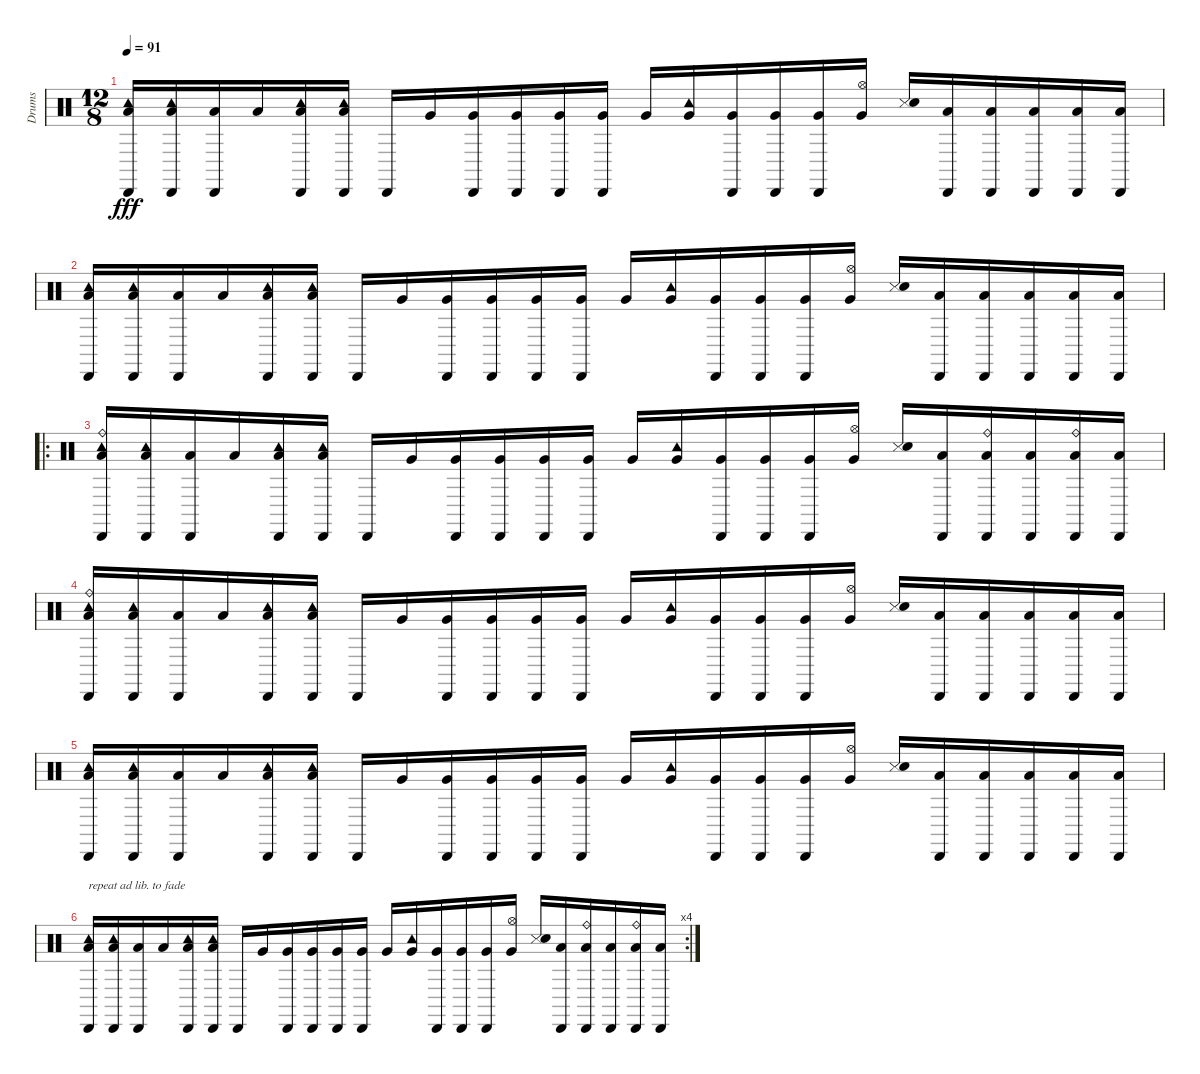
\track ("Drums" "Drums") {instrument percussion}
\staff {score}
\articulation defaults
\ts (12 8)
\tempo 91
\clef neutral
\ks c
("Cabasa (hit)" "Tambourine (hit)" "Low Tom (hit)").16{dy fff} ("Cabasa (hit)" "Tambourine (hit)" "Low Tom (hit)").16 ("Cabasa (hit)" "Low Tom (hit)").16 "Low Tom (hit)".16 ("Cabasa (hit)" "Tambourine (hit)" "Low Tom (hit)").16 ("Cabasa (hit)" "Tambourine (hit)" "Low Tom (hit)").16 "Cabasa (hit)".16 "Very Low Tom (hit)".16 ("Cabasa (hit)" "Very Low Tom (hit)").16 ("Cabasa (hit)" "Very Low Tom (hit)").16 ("Cabasa (hit)" "Very Low Tom (hit)").16 ("Cabasa (hit)" "Very Low Tom (hit)").16 "Very Low Tom (hit)".16 ("Tambourine (hit)" "Very Low Tom (hit)").16 ("Cabasa (hit)" "Very Low Tom (hit)").16 ("Cabasa (hit)" "Very Low Tom (hit)").16 ("Cabasa (hit)" "Very Low Tom (hit)").16 ("Hi-Hat (open)" "Very Low Tom (hit)").16 ("Snare (side stick) 3" "Electric Snare (hit)").16 ("Cabasa (hit)" "Low Tom (hit)").16 ("Cabasa (hit)" "Low Tom (hit)").16 ("Cabasa (hit)" "Low Tom (hit)").16 ("Cabasa (hit)" "Low Tom (hit)").16 ("Cabasa (hit)" "Low Tom (hit)").16 |
("Cabasa (hit)" "Tambourine (hit)" "Low Tom (hit)").16 ("Cabasa (hit)" "Tambourine (hit)" "Low Tom (hit)").16 ("Cabasa (hit)" "Low Tom (hit)").16 "Low Tom (hit)".16 ("Cabasa (hit)" "Tambourine (hit)" "Low Tom (hit)").16 ("Cabasa (hit)" "Tambourine (hit)" "Low Tom (hit)").16 "Cabasa (hit)".16 "Very Low Tom (hit)".16 ("Cabasa (hit)" "Very Low Tom (hit)").16 ("Cabasa (hit)" "Very Low Tom (hit)").16 ("Cabasa (hit)" "Very Low Tom (hit)").16 ("Cabasa (hit)" "Very Low Tom (hit)").16 "Very Low Tom (hit)".16 ("Tambourine (hit)" "Very Low Tom (hit)").16 ("Cabasa (hit)" "Very Low Tom (hit)").16 ("Cabasa (hit)" "Very Low Tom (hit)").16 ("Cabasa (hit)" "Very Low Tom (hit)").16 ("Hi-Hat (open)" "Very Low Tom (hit)").16 ("Snare (side stick) 3" "Electric Snare (hit)").16 ("Cabasa (hit)" "Low Tom (hit)").16 ("Cabasa (hit)" "Low Tom (hit)").16 ("Cabasa (hit)" "Low Tom (hit)").16 ("Cabasa (hit)" "Low Tom (hit)").16 ("Cabasa (hit)" "Low Tom (hit)").16 |
\ro
("Cabasa (hit)" "Ride (bell)" "Tambourine (hit)" "Low Tom (hit)").16 ("Cabasa (hit)" "Tambourine (hit)" "Low Tom (hit)").16 ("Cabasa (hit)" "Low Tom (hit)").16 "Low Tom (hit)".16 ("Cabasa (hit)" "Tambourine (hit)" "Low Tom (hit)").16 ("Cabasa (hit)" "Tambourine (hit)" "Low Tom (hit)").16 "Cabasa (hit)".16 "Very Low Tom (hit)".16 ("Cabasa (hit)" "Very Low Tom (hit)").16 ("Cabasa (hit)" "Very Low Tom (hit)").16 ("Cabasa (hit)" "Very Low Tom (hit)").16 ("Cabasa (hit)" "Very Low Tom (hit)").16 "Very Low Tom (hit)".16 ("Tambourine (hit)" "Very Low Tom (hit)").16 ("Cabasa (hit)" "Very Low Tom (hit)").16 ("Cabasa (hit)" "Very Low Tom (hit)").16 ("Cabasa (hit)" "Very Low Tom (hit)").16 ("Hi-Hat (open)" "Very Low Tom (hit)").16 ("Snare (side stick) 3" "Electric Snare (hit)").16 ("Cabasa (hit)" "Low Tom (hit)").16 ("Cabasa (hit)" "Ride (bell)" "Low Tom (hit)").16 ("Cabasa (hit)" "Low Tom (hit)").16 ("Cabasa (hit)" "Ride (bell)" "Low Tom (hit)").16 ("Cabasa (hit)" "Low Tom (hit)").16 |
("Cabasa (hit)" "Ride (bell)" "Tambourine (hit)" "Low Tom (hit)").16 ("Cabasa (hit)" "Tambourine (hit)" "Low Tom (hit)").16 ("Cabasa (hit)" "Low Tom (hit)").16 "Low Tom (hit)".16 ("Cabasa (hit)" "Tambourine (hit)" "Low Tom (hit)").16 ("Cabasa (hit)" "Tambourine (hit)" "Low Tom (hit)").16 "Cabasa (hit)".16 "Very Low Tom (hit)".16 ("Cabasa (hit)" "Very Low Tom (hit)").16 ("Cabasa (hit)" "Very Low Tom (hit)").16 ("Cabasa (hit)" "Very Low Tom (hit)").16 ("Cabasa (hit)" "Very Low Tom (hit)").16 "Very Low Tom (hit)".16 ("Tambourine (hit)" "Very Low Tom (hit)").16 ("Cabasa (hit)" "Very Low Tom (hit)").16 ("Cabasa (hit)" "Very Low Tom (hit)").16 ("Cabasa (hit)" "Very Low Tom (hit)").16 ("Hi-Hat (open)" "Very Low Tom (hit)").16 ("Snare (side stick) 3" "Electric Snare (hit)").16 ("Cabasa (hit)" "Low Tom (hit)").16 ("Cabasa (hit)" "Low Tom (hit)").16 ("Cabasa (hit)" "Low Tom (hit)").16 ("Cabasa (hit)" "Low Tom (hit)").16 ("Cabasa (hit)" "Low Tom (hit)").16 |
("Cabasa (hit)" "Tambourine (hit)" "Low Tom (hit)").16 ("Cabasa (hit)" "Tambourine (hit)" "Low Tom (hit)").16 ("Cabasa (hit)" "Low Tom (hit)").16 "Low Tom (hit)".16 ("Cabasa (hit)" "Tambourine (hit)" "Low Tom (hit)").16 ("Cabasa (hit)" "Tambourine (hit)" "Low Tom (hit)").16 "Cabasa (hit)".16 "Very Low Tom (hit)".16 ("Cabasa (hit)" "Very Low Tom (hit)").16 ("Cabasa (hit)" "Very Low Tom (hit)").16 ("Cabasa (hit)" "Very Low Tom (hit)").16 ("Cabasa (hit)" "Very Low Tom (hit)").16 "Very Low Tom (hit)".16 ("Tambourine (hit)" "Very Low Tom (hit)").16 ("Cabasa (hit)" "Very Low Tom (hit)").16 ("Cabasa (hit)" "Very Low Tom (hit)").16 ("Cabasa (hit)" "Very Low Tom (hit)").16 ("Hi-Hat (open)" "Very Low Tom (hit)").16 ("Snare (side stick) 3" "Electric Snare (hit)").16 ("Cabasa (hit)" "Low Tom (hit)").16 ("Cabasa (hit)" "Low Tom (hit)").16 ("Cabasa (hit)" "Low Tom (hit)").16 ("Cabasa (hit)" "Low Tom (hit)").16 ("Cabasa (hit)" "Low Tom (hit)").16 |
\rc 4
("Cabasa (hit)" "Tambourine (hit)" "Low Tom (hit)").16{txt "repeat ad lib. to fade"} ("Cabasa (hit)" "Tambourine (hit)" "Low Tom (hit)").16 ("Cabasa (hit)" "Low Tom (hit)").16 "Low Tom (hit)".16 ("Cabasa (hit)" "Tambourine (hit)" "Low Tom (hit)").16 ("Cabasa (hit)" "Tambourine (hit)" "Low Tom (hit)").16 "Cabasa (hit)".16 "Very Low Tom (hit)".16 ("Cabasa (hit)" "Very Low Tom (hit)").16 ("Cabasa (hit)" "Very Low Tom (hit)").16 ("Cabasa (hit)" "Very Low Tom (hit)").16 ("Cabasa (hit)" "Very Low Tom (hit)").16 "Very Low Tom (hit)".16 ("Tambourine (hit)" "Very Low Tom (hit)").16 ("Cabasa (hit)" "Very Low Tom (hit)").16 ("Cabasa (hit)" "Very Low Tom (hit)").16 ("Cabasa (hit)" "Very Low Tom (hit)").16 ("Hi-Hat (open)" "Very Low Tom (hit)").16 ("Snare (side stick) 3" "Electric Snare (hit)").16 ("Cabasa (hit)" "Low Tom (hit)").16 ("Cabasa (hit)" "Ride (bell)" "Low Tom (hit)").16 ("Cabasa (hit)" "Low Tom (hit)").16 ("Cabasa (hit)" "Ride (bell)" "Low Tom (hit)").16 ("Cabasa (hit)" "Low Tom (hit)").16
